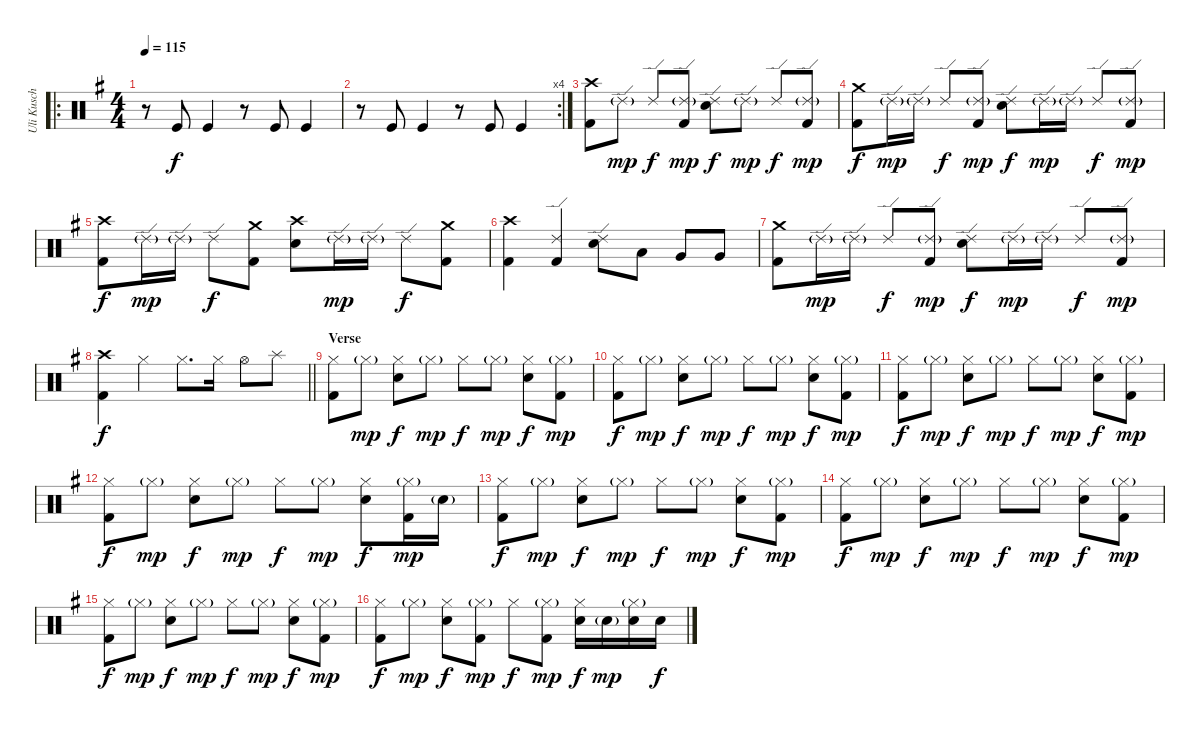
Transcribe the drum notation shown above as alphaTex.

\track ("Uli Kusch" "Uli Kusch") {instrument percussion}
\staff {score}
\articulation defaults
\ro
\ts (4 4)
\tempo 115
\clef neutral
\ks eminor
r.8{dy f} "Kick (hit)".8{volume 7} "Kick (hit)".4 r.8 "Kick (hit)".8 "Kick (hit)".4 |
\rc 4
r.8 "Kick (hit)".8 "Kick (hit)".4 r.8 "Kick (hit)".8 "Kick (hit)".4 |
("Crash high (hit)" "Kick (hit) 2").8{volume 13} "Ride (edge) 2"{g}.8{dy mp} "Ride (edge) 2".8{dy f} ("Ride (edge) 2"{g} "Kick (hit) 2").8{dy mp} ("Ride (edge) 2" "Snare (hit) 2").8{dy f} "Ride (edge) 2"{g}.8{dy mp} "Ride (edge) 2".8{dy f} ("Ride (edge) 2"{g} "Kick (hit) 2").8{dy mp} |
("Crash medium (hit)" "Kick (hit) 2").8{dy f} "Ride (edge) 2"{g}.16{dy mp} "Ride (edge) 2"{g}.16 "Ride (edge) 2".8{dy f} ("Ride (edge) 2"{g} "Kick (hit) 2").8{dy mp} ("Ride (edge) 2" "Snare (hit) 2").8{dy f} "Ride (edge) 2"{g}.16{dy mp} "Ride (edge) 2"{g}.16 "Ride (edge) 2".8{dy f} ("Ride (edge) 2"{g} "Kick (hit) 2").8{dy mp} |
("Crash high (hit)" "Kick (hit) 2").8{dy f} "Ride (edge) 2"{g}.16{dy mp} "Ride (edge) 2"{g}.16 "Ride (edge) 2".8{dy f} ("Crash medium (hit)" "Kick (hit) 2").8 ("Crash high (hit)" "Snare (hit) 2").8 "Ride (edge) 2"{g}.16{dy mp} "Ride (edge) 2"{g}.16 "Ride (edge) 2".8{dy f} ("Crash medium (hit)" "Kick (hit) 2").8 |
("Crash high (hit)" "Kick (hit) 2").4 ("Ride (edge) 2" "Kick (hit) 2").4 ("Ride (edge) 2" "Snare (hit) 2").8 "Low Tom (hit)".8 "Very Low Tom (hit)".8 "Very Low Tom (hit)".8 |
("Crash medium (hit)" "Kick (hit) 2").8 "Ride (edge) 2"{g}.16{dy mp} "Ride (edge) 2"{g}.16 "Ride (edge) 2".8{dy f} ("Ride (edge) 2"{g} "Kick (hit) 2").8{dy mp} ("Ride (edge) 2" "Snare (hit) 2").8{dy f} "Ride (edge) 2"{g}.16{dy mp} "Ride (edge) 2"{g}.16 "Ride (edge) 2".8{dy f} ("Ride (edge) 2"{g} "Kick (hit) 2").8{dy mp} |
\barLineRight lightlight
("Crash high (hit)" "Kick (hit) 2").4{dy f} "Hi-Hat (closed)".4 "Hi-Hat (closed)".8{d} "Hi-Hat (closed)".16 "Hi-Hat (open)".8 "Splash (hit)".8 |
\section ("" "Verse")
("Hi-Hat (closed)" "Kick (hit) 2").8 "Hi-Hat (closed)"{g}.8{dy mp} ("Hi-Hat (closed)" "Snare (hit) 2").8{dy f} "Hi-Hat (closed)"{g}.8{dy mp} "Hi-Hat (closed)".8{dy f} "Hi-Hat (closed)"{g}.8{dy mp} ("Hi-Hat (closed)" "Snare (hit) 2").8{dy f} ("Hi-Hat (closed)"{g} "Kick (hit) 2").8{dy mp} |
("Hi-Hat (closed)" "Kick (hit) 2").8{dy f} "Hi-Hat (closed)"{g}.8{dy mp} ("Hi-Hat (closed)" "Snare (hit) 2").8{dy f} "Hi-Hat (closed)"{g}.8{dy mp} "Hi-Hat (closed)".8{dy f} "Hi-Hat (closed)"{g}.8{dy mp} ("Hi-Hat (closed)" "Snare (hit) 2").8{dy f} ("Hi-Hat (closed)"{g} "Kick (hit) 2").8{dy mp} |
("Hi-Hat (closed)" "Kick (hit) 2").8{dy f} "Hi-Hat (closed)"{g}.8{dy mp} ("Hi-Hat (closed)" "Snare (hit) 2").8{dy f} "Hi-Hat (closed)"{g}.8{dy mp} "Hi-Hat (closed)".8{dy f} "Hi-Hat (closed)"{g}.8{dy mp} ("Hi-Hat (closed)" "Snare (hit) 2").8{dy f} ("Hi-Hat (closed)"{g} "Kick (hit) 2").8{dy mp} |
("Hi-Hat (closed)" "Kick (hit) 2").8{dy f} "Hi-Hat (closed)"{g}.8{dy mp} ("Hi-Hat (closed)" "Snare (hit) 2").8{dy f} "Hi-Hat (closed)"{g}.8{dy mp} "Hi-Hat (closed)".8{dy f} "Hi-Hat (closed)"{g}.8{dy mp} ("Hi-Hat (closed)" "Snare (hit) 2").8{dy f} ("Hi-Hat (closed)"{g} "Kick (hit) 2").16{dy mp} "Snare (hit) 2"{g}.16 |
("Hi-Hat (closed)" "Kick (hit) 2").8{dy f} "Hi-Hat (closed)"{g}.8{dy mp} ("Hi-Hat (closed)" "Snare (hit) 2").8{dy f} "Hi-Hat (closed)"{g}.8{dy mp} "Hi-Hat (closed)".8{dy f} "Hi-Hat (closed)"{g}.8{dy mp} ("Hi-Hat (closed)" "Snare (hit) 2").8{dy f} ("Hi-Hat (closed)"{g} "Kick (hit) 2").8{dy mp} |
("Hi-Hat (closed)" "Kick (hit) 2").8{dy f} "Hi-Hat (closed)"{g}.8{dy mp} ("Hi-Hat (closed)" "Snare (hit) 2").8{dy f} "Hi-Hat (closed)"{g}.8{dy mp} "Hi-Hat (closed)".8{dy f} "Hi-Hat (closed)"{g}.8{dy mp} ("Hi-Hat (closed)" "Snare (hit) 2").8{dy f} ("Hi-Hat (closed)"{g} "Kick (hit) 2").8{dy mp} |
("Hi-Hat (closed)" "Kick (hit) 2").8{dy f} "Hi-Hat (closed)"{g}.8{dy mp} ("Hi-Hat (closed)" "Snare (hit) 2").8{dy f} "Hi-Hat (closed)"{g}.8{dy mp} "Hi-Hat (closed)".8{dy f} "Hi-Hat (closed)"{g}.8{dy mp} ("Hi-Hat (closed)" "Snare (hit) 2").8{dy f} ("Hi-Hat (closed)"{g} "Kick (hit) 2").8{dy mp} |
("Hi-Hat (closed)" "Kick (hit) 2").8{dy f} "Hi-Hat (closed)"{g}.8{dy mp} ("Hi-Hat (closed)" "Snare (hit) 2").8{dy f} ("Hi-Hat (closed)"{g} "Kick (hit) 2").8{dy mp} "Hi-Hat (closed)".8{dy f} ("Hi-Hat (closed)"{g} "Kick (hit) 2").8{dy mp} ("Hi-Hat (closed)" "Snare (hit) 2").16{dy f} "Snare (hit) 2"{g}.16{dy mp} ("Hi-Hat (closed)"{g} "Snare (hit) 2").16 "Snare (hit) 2".16{dy f}
